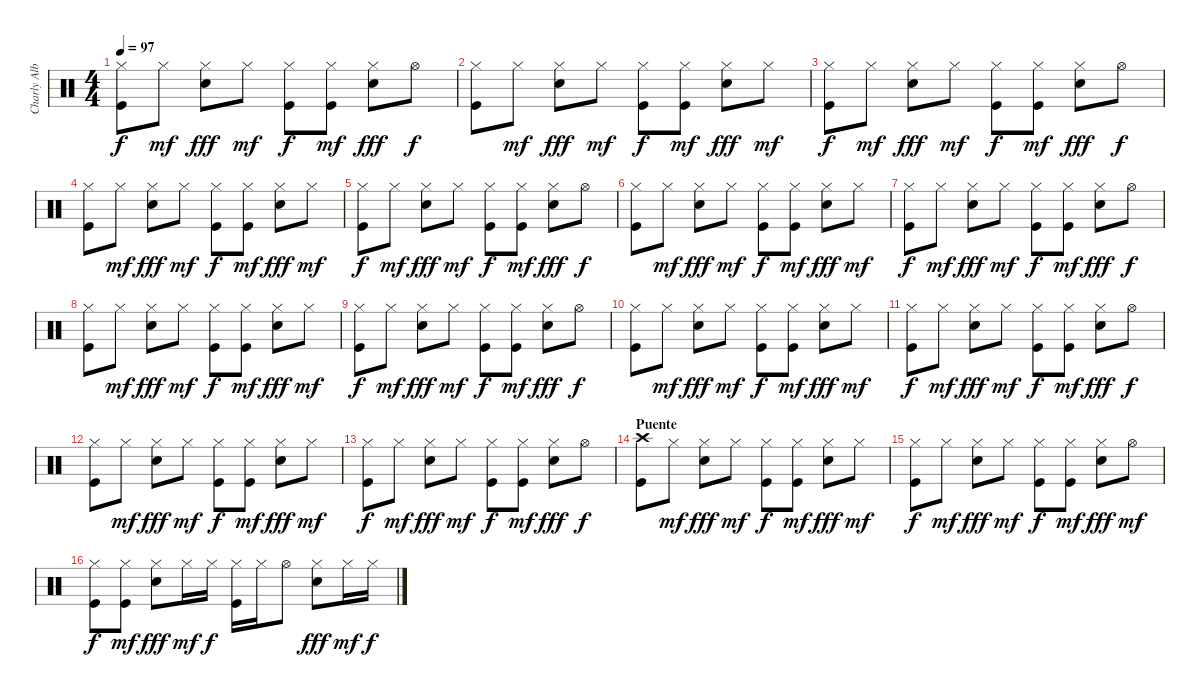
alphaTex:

\track ("Charly Alberti" "Charly Alb") {instrument percussion}
\staff {score}
\articulation defaults
\ts (4 4)
\tempo 97
\clef neutral
\ks c
("Kick (hit)" "Hi-Hat (closed)").8{dy f} "Hi-Hat (closed)".8{dy mf} ("Snare (hit) 2" "Hi-Hat (closed)").8{dy fff} "Hi-Hat (closed)".8{dy mf} ("Kick (hit)" "Hi-Hat (closed)").8{dy f} ("Kick (hit)" "Hi-Hat (closed)").8{dy mf} ("Snare (hit) 2" "Hi-Hat (closed)").8{dy fff} "Hi-Hat (open)".8{dy f} |
("Kick (hit)" "Hi-Hat (closed)").8 "Hi-Hat (closed)".8{dy mf} ("Snare (hit) 2" "Hi-Hat (closed)").8{dy fff} "Hi-Hat (closed)".8{dy mf} ("Kick (hit)" "Hi-Hat (closed)").8{dy f} ("Kick (hit)" "Hi-Hat (closed)").8{dy mf} ("Snare (hit) 2" "Hi-Hat (closed)").8{dy fff} "Hi-Hat (closed)".8{dy mf} |
("Kick (hit)" "Hi-Hat (closed)").8{dy f} "Hi-Hat (closed)".8{dy mf} ("Snare (hit) 2" "Hi-Hat (closed)").8{dy fff} "Hi-Hat (closed)".8{dy mf} ("Kick (hit)" "Hi-Hat (closed)").8{dy f} ("Kick (hit)" "Hi-Hat (closed)").8{dy mf} ("Snare (hit) 2" "Hi-Hat (closed)").8{dy fff} "Hi-Hat (open)".8{dy f} |
("Kick (hit)" "Hi-Hat (closed)").8 "Hi-Hat (closed)".8{dy mf} ("Snare (hit) 2" "Hi-Hat (closed)").8{dy fff} "Hi-Hat (closed)".8{dy mf} ("Kick (hit)" "Hi-Hat (closed)").8{dy f} ("Kick (hit)" "Hi-Hat (closed)").8{dy mf} ("Snare (hit) 2" "Hi-Hat (closed)").8{dy fff} "Hi-Hat (closed)".8{dy mf} |
("Kick (hit)" "Hi-Hat (closed)").8{dy f} "Hi-Hat (closed)".8{dy mf} ("Snare (hit) 2" "Hi-Hat (closed)").8{dy fff} "Hi-Hat (closed)".8{dy mf} ("Kick (hit)" "Hi-Hat (closed)").8{dy f} ("Kick (hit)" "Hi-Hat (closed)").8{dy mf} ("Snare (hit) 2" "Hi-Hat (closed)").8{dy fff} "Hi-Hat (open)".8{dy f} |
("Kick (hit)" "Hi-Hat (closed)").8 "Hi-Hat (closed)".8{dy mf} ("Snare (hit) 2" "Hi-Hat (closed)").8{dy fff} "Hi-Hat (closed)".8{dy mf} ("Kick (hit)" "Hi-Hat (closed)").8{dy f} ("Kick (hit)" "Hi-Hat (closed)").8{dy mf} ("Snare (hit) 2" "Hi-Hat (closed)").8{dy fff} "Hi-Hat (closed)".8{dy mf} |
("Kick (hit)" "Hi-Hat (closed)").8{dy f} "Hi-Hat (closed)".8{dy mf} ("Snare (hit) 2" "Hi-Hat (closed)").8{dy fff} "Hi-Hat (closed)".8{dy mf} ("Kick (hit)" "Hi-Hat (closed)").8{dy f} ("Kick (hit)" "Hi-Hat (closed)").8{dy mf} ("Snare (hit) 2" "Hi-Hat (closed)").8{dy fff} "Hi-Hat (open)".8{dy f} |
("Kick (hit)" "Hi-Hat (closed)").8 "Hi-Hat (closed)".8{dy mf} ("Snare (hit) 2" "Hi-Hat (closed)").8{dy fff} "Hi-Hat (closed)".8{dy mf} ("Kick (hit)" "Hi-Hat (closed)").8{dy f} ("Kick (hit)" "Hi-Hat (closed)").8{dy mf} ("Snare (hit) 2" "Hi-Hat (closed)").8{dy fff} "Hi-Hat (closed)".8{dy mf} |
("Kick (hit)" "Hi-Hat (closed)").8{dy f} "Hi-Hat (closed)".8{dy mf} ("Snare (hit) 2" "Hi-Hat (closed)").8{dy fff} "Hi-Hat (closed)".8{dy mf} ("Kick (hit)" "Hi-Hat (closed)").8{dy f} ("Kick (hit)" "Hi-Hat (closed)").8{dy mf} ("Snare (hit) 2" "Hi-Hat (closed)").8{dy fff} "Hi-Hat (open)".8{dy f} |
("Kick (hit)" "Hi-Hat (closed)").8 "Hi-Hat (closed)".8{dy mf} ("Snare (hit) 2" "Hi-Hat (closed)").8{dy fff} "Hi-Hat (closed)".8{dy mf} ("Kick (hit)" "Hi-Hat (closed)").8{dy f} ("Kick (hit)" "Hi-Hat (closed)").8{dy mf} ("Snare (hit) 2" "Hi-Hat (closed)").8{dy fff} "Hi-Hat (closed)".8{dy mf} |
("Kick (hit)" "Hi-Hat (closed)").8{dy f} "Hi-Hat (closed)".8{dy mf} ("Snare (hit) 2" "Hi-Hat (closed)").8{dy fff} "Hi-Hat (closed)".8{dy mf} ("Kick (hit)" "Hi-Hat (closed)").8{dy f} ("Kick (hit)" "Hi-Hat (closed)").8{dy mf} ("Snare (hit) 2" "Hi-Hat (closed)").8{dy fff} "Hi-Hat (open)".8{dy f} |
("Kick (hit)" "Hi-Hat (closed)").8 "Hi-Hat (closed)".8{dy mf} ("Snare (hit) 2" "Hi-Hat (closed)").8{dy fff} "Hi-Hat (closed)".8{dy mf} ("Kick (hit)" "Hi-Hat (closed)").8{dy f} ("Kick (hit)" "Hi-Hat (closed)").8{dy mf} ("Snare (hit) 2" "Hi-Hat (closed)").8{dy fff} "Hi-Hat (closed)".8{dy mf} |
("Kick (hit)" "Hi-Hat (closed)").8{dy f} "Hi-Hat (closed)".8{dy mf} ("Snare (hit) 2" "Hi-Hat (closed)").8{dy fff} "Hi-Hat (closed)".8{dy mf} ("Kick (hit)" "Hi-Hat (closed)").8{dy f} ("Kick (hit)" "Hi-Hat (closed)").8{dy mf} ("Snare (hit) 2" "Hi-Hat (closed)").8{dy fff} "Hi-Hat (open)".8{dy f} |
\section ("" "Puente")
("Kick (hit)" "Crash high (hit)").8 "Hi-Hat (closed)".8{dy mf} ("Snare (hit) 2" "Hi-Hat (closed)").8{dy fff} "Hi-Hat (closed)".8{dy mf} ("Kick (hit)" "Hi-Hat (closed)").8{dy f} ("Kick (hit)" "Hi-Hat (closed)").8{dy mf} ("Snare (hit) 2" "Hi-Hat (closed)").8{dy fff} "Hi-Hat (closed)".8{dy mf} |
("Kick (hit)" "Hi-Hat (closed)").8{dy f} "Hi-Hat (closed)".8{dy mf} ("Snare (hit) 2" "Hi-Hat (closed)").8{dy fff} "Hi-Hat (closed)".8{dy mf} ("Kick (hit)" "Hi-Hat (closed)").8{dy f} ("Kick (hit)" "Hi-Hat (closed)").8{dy mf} ("Snare (hit) 2" "Hi-Hat (closed)").8{dy fff} "Hi-Hat (open)".8{dy mf} |
("Kick (hit)" "Hi-Hat (closed)").8{dy f} ("Kick (hit)" "Hi-Hat (closed)").8{dy mf} ("Snare (hit) 2" "Hi-Hat (closed)").8{dy fff} "Hi-Hat (closed)".16{dy mf} "Hi-Hat (closed)".16{dy f} ("Kick (hit)" "Hi-Hat (closed)").16 "Hi-Hat (closed)".16 "Hi-Hat (open)".8 ("Snare (hit) 2" "Hi-Hat (closed)").8{dy fff} "Hi-Hat (closed)".16{dy mf} "Hi-Hat (closed)".16{dy f}
